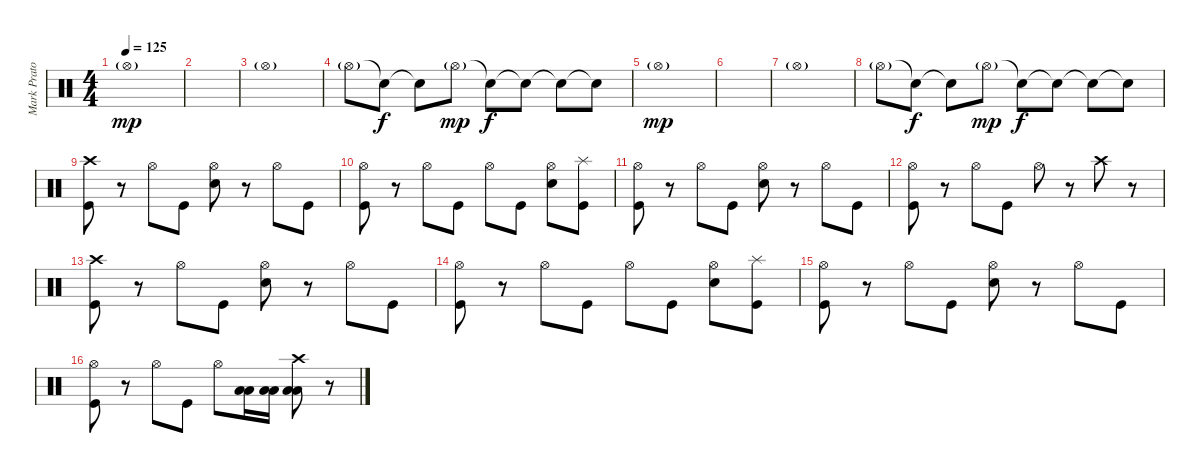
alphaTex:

\track ("Mark Prator" "Mark Prato") {instrument percussion}
\staff {score}
\articulation defaults
\ts (4 4)
\tempo 125
\clef neutral
\ks c "Hi-Hat (open)"{g}.1{dy mp}
|
|
"Hi-Hat (open)"{g}.1 |
"Hi-Hat (open)"{g}.8 "Snare (hit)"{t}.8{dy f} "Snare (hit)"{t}.8 "Hi-Hat (open)"{g}.8{dy mp} "Snare (hit)"{t}.8{dy f} "Snare (hit)"{t}.8 "Snare (hit)"{t}.8 "Snare (hit)"{t}.8 |
"Hi-Hat (open)"{g}.1{dy mp} |
|
"Hi-Hat (open)"{g}.1 |
"Hi-Hat (open)"{g}.8 "Snare (hit)"{t}.8{dy f} "Snare (hit)"{t}.8 "Hi-Hat (open)"{g}.8{dy mp} "Snare (hit)"{t}.8{dy f} "Snare (hit)"{t}.8 "Snare (hit)"{t}.8 "Snare (hit)"{t}.8 |
("Crash high (hit)" "Kick (hit)").8 r.8 "Hi-Hat (open)".8 "Kick (hit)".8 ("Hi-Hat (open)" "Electric Snare (hit)").8 r.8 "Hi-Hat (open)".8 "Kick (hit)".8 |
("Hi-Hat (open)" "Kick (hit)").8 r.8 "Hi-Hat (open)".8 "Kick (hit)".8 "Hi-Hat (open)".8 "Kick (hit)".8 ("Hi-Hat (open)" "Electric Snare (hit)").8 ("Splash (hit)" "Kick (hit)").8 |
("Hi-Hat (open)" "Kick (hit)").8 r.8 "Hi-Hat (open)".8 "Kick (hit)".8 ("Hi-Hat (open)" "Electric Snare (hit)").8 r.8 "Hi-Hat (open)".8 "Kick (hit)".8 |
("Hi-Hat (open)" "Kick (hit)").8 r.8 "Hi-Hat (open)".8 "Kick (hit)".8 "Hi-Hat (open)".8 r.8 "Crash high (hit)".8 r.8 |
("Crash high (hit)" "Kick (hit)").8 r.8 "Hi-Hat (open)".8 "Kick (hit)".8 ("Hi-Hat (open)" "Electric Snare (hit)").8 r.8 "Hi-Hat (open)".8 "Kick (hit)".8 |
("Hi-Hat (open)" "Kick (hit)").8 r.8 "Hi-Hat (open)".8 "Kick (hit)".8 "Hi-Hat (open)".8 "Kick (hit)".8 ("Hi-Hat (open)" "Electric Snare (hit)").8 ("Splash (hit)" "Kick (hit)").8 |
("Hi-Hat (open)" "Kick (hit)").8 r.8 "Hi-Hat (open)".8 "Kick (hit)".8 ("Hi-Hat (open)" "Electric Snare (hit)").8 r.8 "Hi-Hat (open)".8 "Kick (hit)".8 |
("Hi-Hat (open)" "Kick (hit)").8 r.8 "Hi-Hat (open)".8 "Kick (hit)".8 "Hi-Hat (open)".8 ("Low Tom (hit)" "Low Tom (hit)").16 ("Low Tom (hit)" "Low Tom (hit)").16 ("Crash high (hit)" "Low Floor Tom (hit)" "Low Floor Tom (hit)").8 r.8
